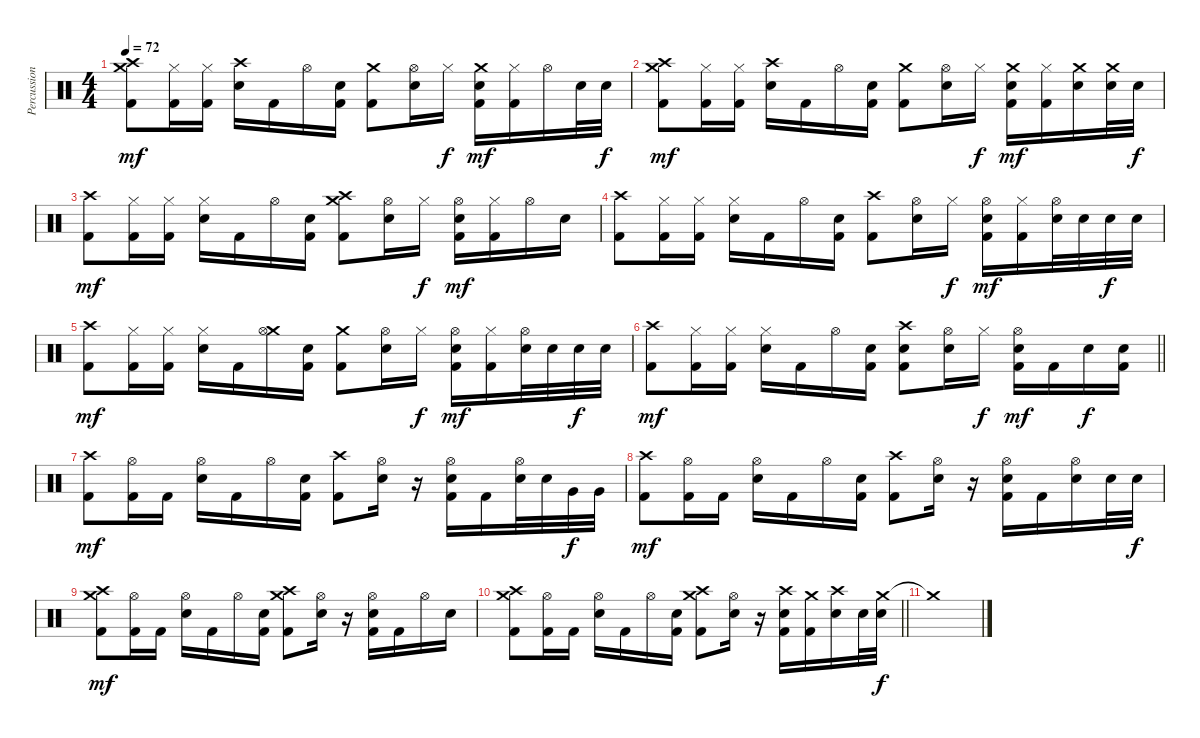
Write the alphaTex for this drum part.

\track ("Percussion" "Percussion") {instrument percussion}
\staff {score}
\articulation defaults
\ts (4 4)
\tempo 72
\clef neutral
\ks c
("Crash medium (hit)" "Crash high (hit)" "Kick (hit) 2").8{dy mf} ("Hi-Hat (closed)" "Kick (hit) 2").16 ("Hi-Hat (closed)" "Kick (hit) 2").16 ("Crash high (hit)" "Snare (hit) 2").16 "Kick (hit) 2".16 "Hi-Hat (open)".16 ("Snare (hit) 2" "Kick (hit) 2").16 ("Crash medium (hit)" "Kick (hit) 2").8 ("Hi-Hat (open)" "Snare (hit) 2").16 "Hi-Hat (closed)".16{dy f} ("Crash medium (hit)" "Snare (hit) 2" "Kick (hit) 2").16{dy mf} ("Hi-Hat (closed)" "Kick (hit) 2").16 "Hi-Hat (open)".16 "Snare (hit) 2".32 "Snare (hit) 2".32{dy f} |
("Crash high (hit)" "Crash medium (hit)" "Kick (hit) 2").8{dy mf} ("Hi-Hat (closed)" "Kick (hit) 2").16 ("Hi-Hat (closed)" "Kick (hit) 2").16 ("Crash high (hit)" "Snare (hit) 2").16 "Kick (hit) 2".16 "Hi-Hat (open)".16 ("Snare (hit) 2" "Kick (hit) 2").16 ("Crash medium (hit)" "Kick (hit) 2").8 ("Hi-Hat (open)" "Snare (hit) 2").16 "Hi-Hat (closed)".16{dy f} ("Crash medium (hit)" "Snare (hit) 2" "Kick (hit) 2").16{dy mf} ("Hi-Hat (closed)" "Kick (hit) 2").16 ("Crash medium (hit)" "Snare (hit) 2").16 ("Crash medium (hit)" "Snare (hit) 2").32 "Snare (hit) 2".32{dy f} |
("Crash high (hit)" "Kick (hit) 2").8{dy mf} ("Hi-Hat (closed)" "Kick (hit) 2").16 ("Hi-Hat (closed)" "Kick (hit) 2").16 ("Hi-Hat (closed)" "Snare (hit) 2").16 "Kick (hit) 2".16 "Hi-Hat (open)".16 ("Snare (hit) 2" "Kick (hit) 2").16 ("Crash medium (hit)" "Crash high (hit)" "Kick (hit) 2").8 ("Hi-Hat (open)" "Snare (hit) 2").16 "Hi-Hat (closed)".16{dy f} ("Hi-Hat (open)" "Snare (hit) 2" "Kick (hit) 2").16{dy mf} ("Hi-Hat (closed)" "Kick (hit) 2").16 "Hi-Hat (open)".16 "Snare (hit) 2".16 |
("Crash high (hit)" "Kick (hit) 2").8 ("Hi-Hat (closed)" "Kick (hit) 2").16 ("Hi-Hat (closed)" "Kick (hit) 2").16 ("Hi-Hat (closed)" "Snare (hit) 2").16 "Kick (hit) 2".16 "Hi-Hat (open)".16 ("Snare (hit) 2" "Kick (hit) 2").16 ("Crash high (hit)" "Kick (hit) 2").8 ("Hi-Hat (open)" "Snare (hit) 2").16 "Hi-Hat (closed)".16{dy f} ("Hi-Hat (open)" "Snare (hit) 2" "Kick (hit) 2").16{dy mf} ("Hi-Hat (closed)" "Kick (hit) 2").16 ("Hi-Hat (open)" "Snare (hit) 2").32 "Snare (hit) 2".32 "Snare (hit) 2".32{dy f} "Snare (hit) 2".32 |
("Crash high (hit)" "Kick (hit) 2").8{dy mf} ("Hi-Hat (closed)" "Kick (hit) 2").16 ("Hi-Hat (closed)" "Kick (hit) 2").16 ("Hi-Hat (closed)" "Snare (hit) 2").16 "Kick (hit) 2".16 ("Crash medium (hit)" "Hi-Hat (open)").16 ("Snare (hit) 2" "Kick (hit) 2").16 ("Crash medium (hit)" "Kick (hit) 2").8 ("Hi-Hat (open)" "Snare (hit) 2").16 "Hi-Hat (closed)".16{dy f} ("Hi-Hat (open)" "Snare (hit) 2" "Kick (hit) 2").16{dy mf} ("Hi-Hat (closed)" "Kick (hit) 2").16 ("Hi-Hat (open)" "Snare (hit) 2").32 "Snare (hit) 2".32 "Snare (hit) 2".32{dy f} "Snare (hit) 2".32 |
\barLineRight lightlight
("Crash high (hit)" "Kick (hit) 2").8{dy mf} ("Hi-Hat (closed)" "Kick (hit) 2").16 ("Hi-Hat (closed)" "Kick (hit) 2").16 ("Hi-Hat (closed)" "Snare (hit) 2").16 "Kick (hit) 2".16 "Hi-Hat (open)".16 ("Snare (hit) 2" "Kick (hit) 2").16 ("Crash high (hit)" "Snare (hit) 2" "Kick (hit) 2").8 ("Hi-Hat (open)" "Snare (hit) 2").16 "Hi-Hat (closed)".16{dy f} ("Hi-Hat (open)" "Snare (hit) 2" "Kick (hit) 2").16{dy mf} "Kick (hit) 2".16 "Snare (hit) 2".16{dy f} ("Snare (hit) 2" "Kick (hit) 2").16 |
("Crash high (hit)" "Kick (hit) 2").8{dy mf} ("Hi-Hat (open)" "Kick (hit) 2").16 "Kick (hit) 2".16 ("Hi-Hat (open)" "Snare (hit) 2").16 "Kick (hit) 2".16 "Hi-Hat (open)".16 ("Snare (hit) 2" "Kick (hit) 2").16 ("Crash high (hit)" "Kick (hit) 2").8 ("Hi-Hat (open)" "Snare (hit) 2").16 r.16 ("Hi-Hat (open)" "Snare (hit) 2" "Kick (hit) 2").16 "Kick (hit) 2".16 ("Hi-Hat (open)" "Snare (hit) 2").32 "Snare (hit) 2".32 "Very Low Tom (hit)".32{dy f} "Very Low Tom (hit)".32 |
("Crash high (hit)" "Kick (hit) 2").8{dy mf} ("Hi-Hat (open)" "Kick (hit) 2").16 "Kick (hit) 2".16 ("Hi-Hat (open)" "Snare (hit) 2").16 "Kick (hit) 2".16 "Hi-Hat (open)".16 ("Snare (hit) 2" "Kick (hit) 2").16 ("Crash high (hit)" "Kick (hit) 2").8 ("Hi-Hat (open)" "Snare (hit) 2").16 r.16 ("Hi-Hat (open)" "Snare (hit) 2" "Kick (hit) 2").16 "Kick (hit) 2".16 ("Hi-Hat (open)" "Snare (hit) 2").16 "Snare (hit) 2".32 "Snare (hit) 2".32{dy f} |
("Crash medium (hit)" "Crash high (hit)" "Kick (hit) 2").8{dy mf} ("Hi-Hat (open)" "Kick (hit) 2").16 "Kick (hit) 2".16 ("Hi-Hat (open)" "Snare (hit) 2").16 "Kick (hit) 2".16 "Hi-Hat (open)".16 ("Snare (hit) 2" "Kick (hit) 2").16 ("Crash medium (hit)" "Crash high (hit)" "Kick (hit) 2").8 ("Hi-Hat (open)" "Snare (hit) 2").16 r.16 ("Hi-Hat (open)" "Snare (hit) 2" "Kick (hit) 2").16 "Kick (hit) 2".16 "Hi-Hat (open)".16 "Snare (hit) 2".16 |
\barLineRight lightlight
("Crash medium (hit)" "Crash high (hit)" "Kick (hit) 2").8 ("Hi-Hat (open)" "Kick (hit) 2").16 "Kick (hit) 2".16 ("Hi-Hat (open)" "Snare (hit) 2").16 "Kick (hit) 2".16 "Hi-Hat (open)".16 ("Snare (hit) 2" "Kick (hit) 2").16 ("Crash medium (hit)" "Crash high (hit)" "Kick (hit) 2").8 ("Hi-Hat (open)" "Snare (hit) 2").16 r.16 ("Crash high (hit)" "Snare (hit) 2" "Kick (hit) 2").16 ("Crash medium (hit)" "Kick (hit) 2").16 ("Crash high (hit)" "Snare (hit) 2").16 "Snare (hit) 2".32 ("Crash medium (hit)" "Snare (hit) 2").32{dy f} |
"Crash medium (hit)"{t}.1
